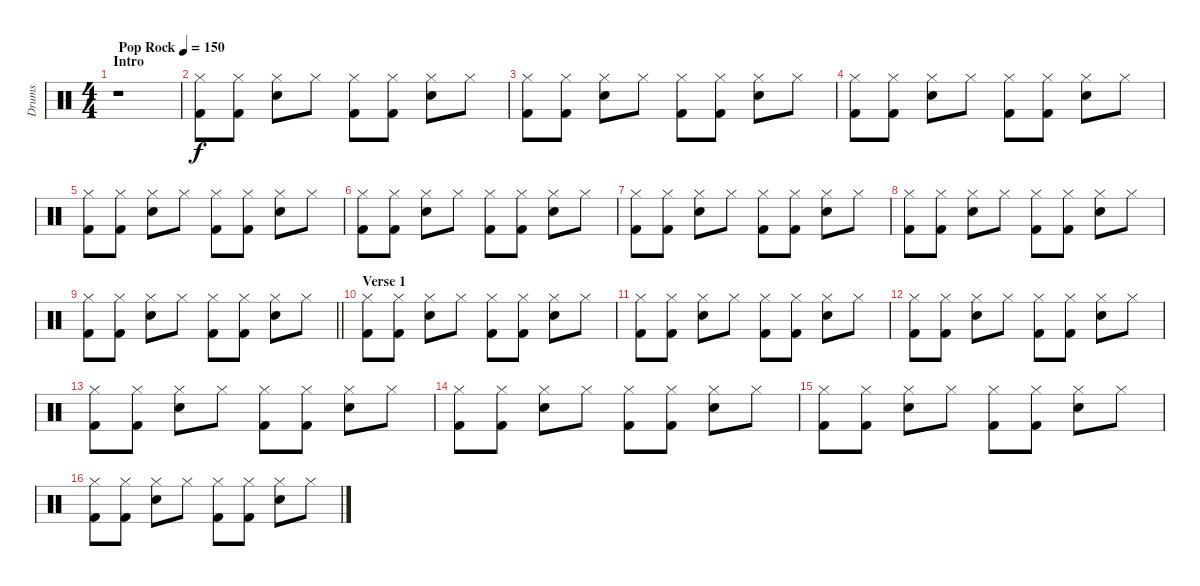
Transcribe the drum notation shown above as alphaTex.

\track ("Drums" "Drums") {instrument percussion}
\staff {score}
\articulation defaults
\ts (4 4)
\section ("" "Intro")
\tempo (150 "Pop Rock")
\clef neutral
\ks c
r.1{dy f} |
("Hi-Hat (closed)" "Kick (hit) 2").8 ("Hi-Hat (closed)" "Kick (hit) 2").8 ("Hi-Hat (closed)" "Electric Snare (hit)").8 "Hi-Hat (closed)".8 ("Hi-Hat (closed)" "Kick (hit) 2").8 ("Hi-Hat (closed)" "Kick (hit) 2").8 ("Hi-Hat (closed)" "Electric Snare (hit)").8 "Hi-Hat (closed)".8 |
("Hi-Hat (closed)" "Kick (hit) 2").8 ("Hi-Hat (closed)" "Kick (hit) 2").8 ("Hi-Hat (closed)" "Electric Snare (hit)").8 "Hi-Hat (closed)".8 ("Hi-Hat (closed)" "Kick (hit) 2").8 ("Hi-Hat (closed)" "Kick (hit) 2").8 ("Hi-Hat (closed)" "Electric Snare (hit)").8 "Hi-Hat (closed)".8 |
("Hi-Hat (closed)" "Kick (hit) 2").8 ("Hi-Hat (closed)" "Kick (hit) 2").8 ("Hi-Hat (closed)" "Electric Snare (hit)").8 "Hi-Hat (closed)".8 ("Hi-Hat (closed)" "Kick (hit) 2").8 ("Hi-Hat (closed)" "Kick (hit) 2").8 ("Hi-Hat (closed)" "Electric Snare (hit)").8 "Hi-Hat (closed)".8 |
("Hi-Hat (closed)" "Kick (hit) 2").8 ("Hi-Hat (closed)" "Kick (hit) 2").8 ("Hi-Hat (closed)" "Electric Snare (hit)").8 "Hi-Hat (closed)".8 ("Hi-Hat (closed)" "Kick (hit) 2").8 ("Hi-Hat (closed)" "Kick (hit) 2").8 ("Hi-Hat (closed)" "Electric Snare (hit)").8 "Hi-Hat (closed)".8 |
("Hi-Hat (closed)" "Kick (hit) 2").8 ("Hi-Hat (closed)" "Kick (hit) 2").8 ("Hi-Hat (closed)" "Electric Snare (hit)").8 "Hi-Hat (closed)".8 ("Hi-Hat (closed)" "Kick (hit) 2").8 ("Hi-Hat (closed)" "Kick (hit) 2").8 ("Hi-Hat (closed)" "Electric Snare (hit)").8 "Hi-Hat (closed)".8 |
("Hi-Hat (closed)" "Kick (hit) 2").8 ("Hi-Hat (closed)" "Kick (hit) 2").8 ("Hi-Hat (closed)" "Electric Snare (hit)").8 "Hi-Hat (closed)".8 ("Hi-Hat (closed)" "Kick (hit) 2").8 ("Hi-Hat (closed)" "Kick (hit) 2").8 ("Hi-Hat (closed)" "Electric Snare (hit)").8 "Hi-Hat (closed)".8 |
("Hi-Hat (closed)" "Kick (hit) 2").8 ("Hi-Hat (closed)" "Kick (hit) 2").8 ("Hi-Hat (closed)" "Electric Snare (hit)").8 "Hi-Hat (closed)".8 ("Hi-Hat (closed)" "Kick (hit) 2").8 ("Hi-Hat (closed)" "Kick (hit) 2").8 ("Hi-Hat (closed)" "Electric Snare (hit)").8 "Hi-Hat (closed)".8 |
\barLineRight lightlight
("Hi-Hat (closed)" "Kick (hit) 2").8 ("Hi-Hat (closed)" "Kick (hit) 2").8 ("Hi-Hat (closed)" "Electric Snare (hit)").8 "Hi-Hat (closed)".8 ("Hi-Hat (closed)" "Kick (hit) 2").8 ("Hi-Hat (closed)" "Kick (hit) 2").8 ("Hi-Hat (closed)" "Electric Snare (hit)").8 "Hi-Hat (closed)".8 |
\section ("" "Verse 1")
("Hi-Hat (closed)" "Kick (hit) 2").8 ("Hi-Hat (closed)" "Kick (hit) 2").8 ("Hi-Hat (closed)" "Electric Snare (hit)").8 "Hi-Hat (closed)".8 ("Hi-Hat (closed)" "Kick (hit) 2").8 ("Hi-Hat (closed)" "Kick (hit) 2").8 ("Hi-Hat (closed)" "Electric Snare (hit)").8 "Hi-Hat (closed)".8 |
("Hi-Hat (closed)" "Kick (hit) 2").8 ("Hi-Hat (closed)" "Kick (hit) 2").8 ("Hi-Hat (closed)" "Electric Snare (hit)").8 "Hi-Hat (closed)".8 ("Hi-Hat (closed)" "Kick (hit) 2").8 ("Hi-Hat (closed)" "Kick (hit) 2").8 ("Hi-Hat (closed)" "Electric Snare (hit)").8 "Hi-Hat (closed)".8 |
("Hi-Hat (closed)" "Kick (hit) 2").8 ("Hi-Hat (closed)" "Kick (hit) 2").8 ("Hi-Hat (closed)" "Electric Snare (hit)").8 "Hi-Hat (closed)".8 ("Hi-Hat (closed)" "Kick (hit) 2").8 ("Hi-Hat (closed)" "Kick (hit) 2").8 ("Hi-Hat (closed)" "Electric Snare (hit)").8 "Hi-Hat (closed)".8 |
("Hi-Hat (closed)" "Kick (hit) 2").8 ("Hi-Hat (closed)" "Kick (hit) 2").8 ("Hi-Hat (closed)" "Electric Snare (hit)").8 "Hi-Hat (closed)".8 ("Hi-Hat (closed)" "Kick (hit) 2").8 ("Hi-Hat (closed)" "Kick (hit) 2").8 ("Hi-Hat (closed)" "Electric Snare (hit)").8 "Hi-Hat (closed)".8 |
("Hi-Hat (closed)" "Kick (hit) 2").8 ("Hi-Hat (closed)" "Kick (hit) 2").8 ("Hi-Hat (closed)" "Electric Snare (hit)").8 "Hi-Hat (closed)".8 ("Hi-Hat (closed)" "Kick (hit) 2").8 ("Hi-Hat (closed)" "Kick (hit) 2").8 ("Hi-Hat (closed)" "Electric Snare (hit)").8 "Hi-Hat (closed)".8 |
("Hi-Hat (closed)" "Kick (hit) 2").8 ("Hi-Hat (closed)" "Kick (hit) 2").8 ("Hi-Hat (closed)" "Electric Snare (hit)").8 "Hi-Hat (closed)".8 ("Hi-Hat (closed)" "Kick (hit) 2").8 ("Hi-Hat (closed)" "Kick (hit) 2").8 ("Hi-Hat (closed)" "Electric Snare (hit)").8 "Hi-Hat (closed)".8 |
("Hi-Hat (closed)" "Kick (hit) 2").8 ("Hi-Hat (closed)" "Kick (hit) 2").8 ("Hi-Hat (closed)" "Electric Snare (hit)").8 "Hi-Hat (closed)".8 ("Hi-Hat (closed)" "Kick (hit) 2").8 ("Hi-Hat (closed)" "Kick (hit) 2").8 ("Hi-Hat (closed)" "Electric Snare (hit)").8 "Hi-Hat (closed)".8
